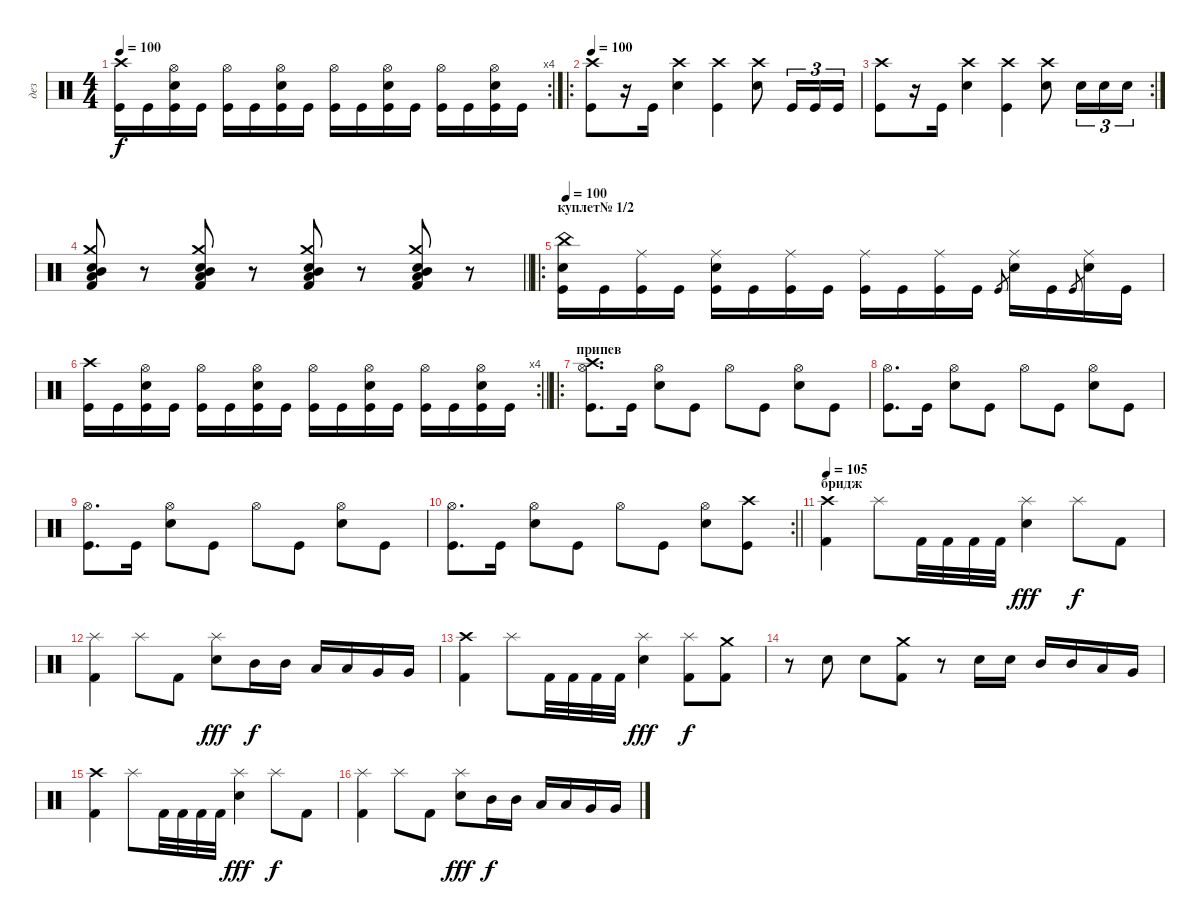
\track ("дез" "дез") {instrument percussion}
\staff {score}
\articulation defaults
\rc 4
\ts (4 4)
\tempo 100
\clef neutral
\ks c
("Crash high (hit)" "Kick (hit)").16{dy f} "Kick (hit)".16 ("Hi-Hat (open)" "Electric Snare (hit)" "Kick (hit)").16 "Kick (hit)".16 ("Hi-Hat (open)" "Kick (hit)").16 "Kick (hit)".16 ("Hi-Hat (open)" "Electric Snare (hit)" "Kick (hit)").16 "Kick (hit)".16 ("Hi-Hat (open)" "Kick (hit)").16 "Kick (hit)".16 ("Hi-Hat (open)" "Electric Snare (hit)" "Kick (hit)").16 "Kick (hit)".16 ("Hi-Hat (open)" "Kick (hit)").16 "Kick (hit)".16 ("Hi-Hat (open)" "Electric Snare (hit)" "Kick (hit)").16 "Kick (hit)".16 |
\ro
\tempo 100
("Crash high (hit)" "Kick (hit)").8 r.16 "Kick (hit)".16 ("Crash high (hit)" "Electric Snare (hit)").4 ("Crash high (hit)" "Kick (hit)").4 ("Crash high (hit)" "Electric Snare (hit)").8 "Kick (hit)".16{tu (3 2)} "Kick (hit)".16{tu (3 2)} "Kick (hit)".16{tu (3 2)} |
\rc 2
("Crash high (hit)" "Kick (hit)").8 r.16 "Kick (hit)".16 ("Crash high (hit)" "Electric Snare (hit)").4 ("Crash high (hit)" "Kick (hit)").4 ("Crash high (hit)" "Electric Snare (hit)").8 "Electric Snare (hit)".16{tu (3 2)} "Electric Snare (hit)".16{tu (3 2)} "Electric Snare (hit)".16{tu (3 2)} |
\barLineRight lightlight
("Crash medium (hit)" "Low Tom (hit)" "Mid Tom (hit)" "Kick (hit) 2" "Electric Snare (hit)").8 r.8 ("Crash medium (hit)" "Low Tom (hit)" "Mid Tom (hit)" "Kick (hit) 2" "Electric Snare (hit)").8 r.8 ("Crash medium (hit)" "Low Tom (hit)" "Mid Tom (hit)" "Kick (hit) 2" "Electric Snare (hit)").8 r.8 ("Crash medium (hit)" "Low Tom (hit)" "Mid Tom (hit)" "Kick (hit) 2" "Electric Snare (hit)").8 r.8 |
\ro
\section ("" "куплет№ 1/2")
\tempo 100
("China (hit)" "Electric Snare (hit)" "Kick (hit)").16 "Kick (hit)".16 ("Ride (middle)" "Kick (hit)").16 "Kick (hit)".16 ("Ride (middle)" "Electric Snare (hit)" "Kick (hit)").16 "Kick (hit)".16 ("Ride (middle)" "Kick (hit)").16 "Kick (hit)".16 ("Ride (middle)" "Kick (hit)").16 "Kick (hit)".16 ("Ride (middle)" "Kick (hit)").16 "Kick (hit)".16 "Kick (hit)"{sl}.8{gr} ("Ride (middle)" "Electric Snare (hit)").16 "Kick (hit)".16 "Kick (hit)"{sl}.8{gr} ("Ride (middle)" "Electric Snare (hit)").16 "Kick (hit)".16 |
\rc 4
\barLineRight lightlight
("Crash high (hit)" "Kick (hit)").16 "Kick (hit)".16 ("Hi-Hat (open)" "Electric Snare (hit)" "Kick (hit)").16 "Kick (hit)".16 ("Hi-Hat (open)" "Kick (hit)").16 "Kick (hit)".16 ("Hi-Hat (open)" "Electric Snare (hit)" "Kick (hit)").16 "Kick (hit)".16 ("Hi-Hat (open)" "Kick (hit)").16 "Kick (hit)".16 ("Hi-Hat (open)" "Electric Snare (hit)" "Kick (hit)").16 "Kick (hit)".16 ("Hi-Hat (open)" "Kick (hit)").16 "Kick (hit)".16 ("Hi-Hat (open)" "Electric Snare (hit)" "Kick (hit)").16 "Kick (hit)".16 |
\ro
\section ("" "припев")
("Crash high (hit)" "Hi-Hat (open)" "Kick (hit)").8{d} "Kick (hit)".16 ("Hi-Hat (open)" "Snare (hit) 2").8 "Kick (hit)".8 "Hi-Hat (open)".8 "Kick (hit)".8 ("Hi-Hat (open)" "Snare (hit) 2").8 "Kick (hit)".8 |
("Hi-Hat (open)" "Kick (hit)").8{d} "Kick (hit)".16 ("Hi-Hat (open)" "Snare (hit) 2").8 "Kick (hit)".8 "Hi-Hat (open)".8 "Kick (hit)".8 ("Hi-Hat (open)" "Snare (hit) 2").8 "Kick (hit)".8 |
("Hi-Hat (open)" "Kick (hit)").8{d} "Kick (hit)".16 ("Hi-Hat (open)" "Snare (hit) 2").8 "Kick (hit)".8 "Hi-Hat (open)".8 "Kick (hit)".8 ("Hi-Hat (open)" "Snare (hit) 2").8 "Kick (hit)".8 |
\rc 2
\barLineRight lightlight
("Hi-Hat (open)" "Kick (hit)").8{d} "Kick (hit)".16 ("Hi-Hat (open)" "Snare (hit) 2").8 "Kick (hit)".8 "Hi-Hat (open)".8 "Kick (hit)".8 ("Hi-Hat (open)" "Snare (hit) 2").8 ("Crash high (hit)" "Kick (hit)").8 |
\section ("" "бридж")
\tempo 105
("Crash high (hit)" "Kick (hit) 2").4 "Splash (hit)".8 "Kick (hit) 2".32 "Kick (hit) 2".32 "Kick (hit) 2".32 "Kick (hit) 2".32 ("Splash (hit)" "Snare (hit) 2").4{dy fff} "Splash (hit)".8{dy f} "Kick (hit) 2".8 |
("Splash (hit)" "Kick (hit) 2").4 "Splash (hit)".8 "Kick (hit) 2".8 ("Splash (hit)" "Snare (hit) 2").8{dy fff} "Mid Tom (hit)".16{dy f} "Mid Tom (hit)".16 "Low Tom (hit)".16 "Low Tom (hit)".16 "Very Low Tom (hit)".16 "Very Low Tom (hit)".16 |
("Crash high (hit)" "Kick (hit) 2").4 "Splash (hit)".8 "Kick (hit) 2".32 "Kick (hit) 2".32 "Kick (hit) 2".32 "Kick (hit) 2".32 ("Splash (hit)" "Snare (hit) 2").4{dy fff} ("Splash (hit)" "Kick (hit) 2").8{dy f} ("Crash medium (hit)" "Kick (hit) 2").8 |
r.8 "Snare (hit) 2".8 "Snare (hit) 2".8 ("Crash medium (hit)" "Kick (hit) 2").8 r.8 "Snare (hit) 2".16 "Snare (hit) 2".16 "Mid Tom (hit)".16 "Mid Tom (hit)".16 "Low Tom (hit)".16 "Very Low Tom (hit)".16 |
("Crash high (hit)" "Kick (hit) 2").4 "Splash (hit)".8 "Kick (hit) 2".32 "Kick (hit) 2".32 "Kick (hit) 2".32 "Kick (hit) 2".32 ("Splash (hit)" "Snare (hit) 2").4{dy fff} "Splash (hit)".8{dy f} "Kick (hit) 2".8 |
("Splash (hit)" "Kick (hit) 2").4 "Splash (hit)".8 "Kick (hit) 2".8 ("Splash (hit)" "Snare (hit) 2").8{dy fff} "Mid Tom (hit)".16{dy f} "Mid Tom (hit)".16 "Low Tom (hit)".16 "Low Tom (hit)".16 "Very Low Tom (hit)".16 "Very Low Tom (hit)".16
